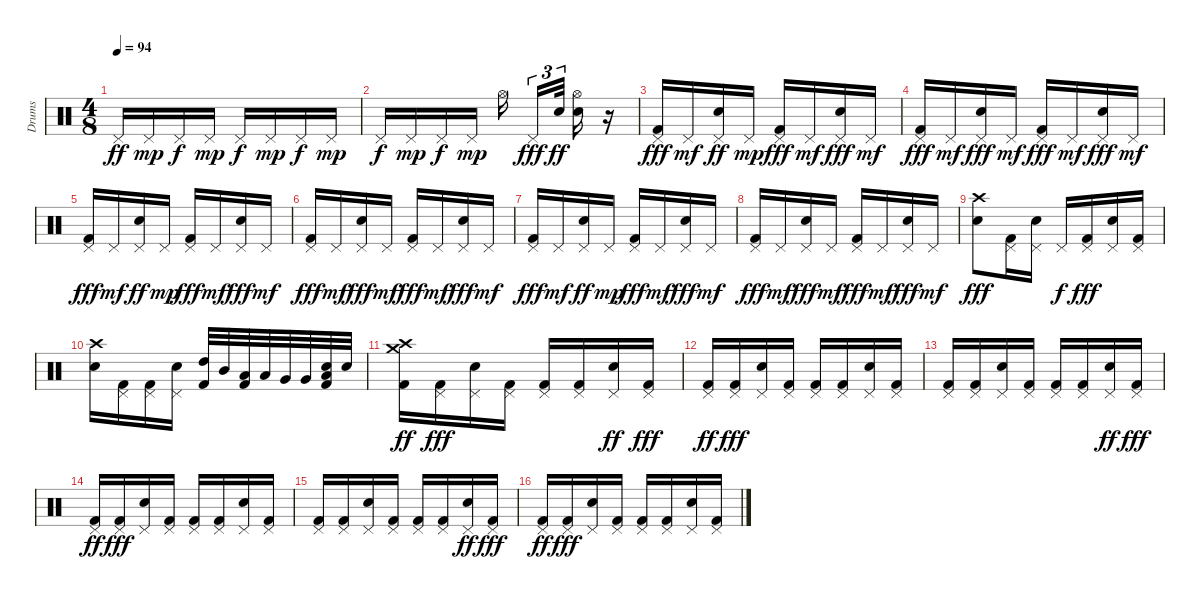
\track ("Drums" "Drums") {instrument percussion}
\staff {score}
\articulation defaults
\ts (4 8)
\tempo 94
\clef neutral
\ks c "Pedal Hi-Hat (hit)".16{dy ff} "Pedal Hi-Hat (hit)".16{dy mp} "Pedal Hi-Hat (hit)".16{dy f} "Pedal Hi-Hat (hit)".16{dy mp} "Pedal Hi-Hat (hit)".16{dy f} "Pedal Hi-Hat (hit)".16{dy mp} "Pedal Hi-Hat (hit)".16{dy f} "Pedal Hi-Hat (hit)".16{dy mp}
|
"Pedal Hi-Hat (hit)".16{dy f} "Pedal Hi-Hat (hit)".16{dy mp} "Pedal Hi-Hat (hit)".16{dy f} "Pedal Hi-Hat (hit)".16{dy mp} "Hi-Hat (open)".16 "Pedal Hi-Hat (hit)".16{tu (3 2) dy fff} "Electric Snare (hit)".32{tu (3 2) dy ff} ("Hi-Hat (open)" "Electric Snare (hit)").16 r.16 |
("Pedal Hi-Hat (hit)" "Kick (hit) 2").16{dy fff} "Pedal Hi-Hat (hit)".16{dy mf} ("Electric Snare (hit)" "Pedal Hi-Hat (hit)").16{dy ff} "Pedal Hi-Hat (hit)".16{dy mp} ("Pedal Hi-Hat (hit)" "Kick (hit) 2").16{dy fff} "Pedal Hi-Hat (hit)".16{dy mf} ("Pedal Hi-Hat (hit)" "Electric Snare (hit)").16{dy fff} "Pedal Hi-Hat (hit)".16{dy mf} |
("Pedal Hi-Hat (hit)" "Kick (hit) 2").16{dy fff} "Pedal Hi-Hat (hit)".16{dy mf} ("Pedal Hi-Hat (hit)" "Electric Snare (hit)").16{dy fff} "Pedal Hi-Hat (hit)".16{dy mf} ("Pedal Hi-Hat (hit)" "Kick (hit) 2").16{dy fff} "Pedal Hi-Hat (hit)".16{dy mf} ("Pedal Hi-Hat (hit)" "Electric Snare (hit)").16{dy fff} "Pedal Hi-Hat (hit)".16{dy mf} |
("Pedal Hi-Hat (hit)" "Kick (hit) 2").16{dy fff} "Pedal Hi-Hat (hit)".16{dy mf} ("Electric Snare (hit)" "Pedal Hi-Hat (hit)").16{dy ff} "Pedal Hi-Hat (hit)".16{dy mp} ("Pedal Hi-Hat (hit)" "Kick (hit) 2").16{dy fff} "Pedal Hi-Hat (hit)".16{dy mf} ("Pedal Hi-Hat (hit)" "Electric Snare (hit)").16{dy fff} "Pedal Hi-Hat (hit)".16{dy mf} |
("Pedal Hi-Hat (hit)" "Kick (hit) 2").16{dy fff} "Pedal Hi-Hat (hit)".16{dy mf} ("Pedal Hi-Hat (hit)" "Electric Snare (hit)").16{dy fff} "Pedal Hi-Hat (hit)".16{dy mf} ("Pedal Hi-Hat (hit)" "Kick (hit) 2").16{dy fff} "Pedal Hi-Hat (hit)".16{dy mf} ("Pedal Hi-Hat (hit)" "Electric Snare (hit)").16{dy fff} "Pedal Hi-Hat (hit)".16{dy mf} |
("Pedal Hi-Hat (hit)" "Kick (hit) 2").16{dy fff} "Pedal Hi-Hat (hit)".16{dy mf} ("Electric Snare (hit)" "Pedal Hi-Hat (hit)").16{dy ff} "Pedal Hi-Hat (hit)".16{dy mp} ("Pedal Hi-Hat (hit)" "Kick (hit) 2").16{dy fff} "Pedal Hi-Hat (hit)".16{dy mf} ("Pedal Hi-Hat (hit)" "Electric Snare (hit)").16{dy fff} "Pedal Hi-Hat (hit)".16{dy mf} |
("Pedal Hi-Hat (hit)" "Kick (hit) 2").16{dy fff} "Pedal Hi-Hat (hit)".16{dy mf} ("Pedal Hi-Hat (hit)" "Electric Snare (hit)").16{dy fff} "Pedal Hi-Hat (hit)".16{dy mf} ("Pedal Hi-Hat (hit)" "Kick (hit) 2").16{dy fff} "Pedal Hi-Hat (hit)".16{dy mf} ("Pedal Hi-Hat (hit)" "Electric Snare (hit)").16{dy fff} "Pedal Hi-Hat (hit)".16{dy mf} |
("Crash high (hit)" "Electric Snare (hit)").8{dy fff} ("Pedal Hi-Hat (hit)" "Kick (hit) 2").16 ("Pedal Hi-Hat (hit)" "Electric Snare (hit)").16 "Pedal Hi-Hat (hit)".16{dy f} ("Pedal Hi-Hat (hit)" "Kick (hit) 2").16{dy fff} ("Pedal Hi-Hat (hit)" "Electric Snare (hit)").16 ("Pedal Hi-Hat (hit)" "Kick (hit) 2").16 |
("Electric Snare (hit)" "Crash high (hit)").16 ("Pedal Hi-Hat (hit)" "Kick (hit) 2").16 ("Pedal Hi-Hat (hit)" "Kick (hit) 2").16 ("Pedal Hi-Hat (hit)" "Electric Snare (hit)").16 ("Kick (hit) 2" "High Tom (hit)").32 "Mid Tom (hit)".32 ("Kick (hit) 2" "Low Tom (hit)").32 "Low Tom (hit)".32 "Very Low Tom (hit)".32 "Very Low Tom (hit)".32 ("Kick (hit) 2" "Electric Snare (hit)" "Low Floor Tom (hit)").32 "Electric Snare (hit)".32 |
("Crash medium (hit)" "Kick (hit) 2" "Crash high (hit)").16{dy ff} ("Pedal Hi-Hat (hit)" "Kick (hit) 2").16{dy fff} ("Pedal Hi-Hat (hit)" "Electric Snare (hit)").16 ("Pedal Hi-Hat (hit)" "Kick (hit) 2").16 ("Pedal Hi-Hat (hit)" "Kick (hit) 2").16 ("Pedal Hi-Hat (hit)" "Kick (hit) 2").16 ("Electric Snare (hit)" "Pedal Hi-Hat (hit)").16{dy ff} ("Pedal Hi-Hat (hit)" "Kick (hit) 2").16{dy fff} |
("Kick (hit) 2" "Pedal Hi-Hat (hit)").16{dy ff} ("Pedal Hi-Hat (hit)" "Kick (hit) 2").16{dy fff} ("Pedal Hi-Hat (hit)" "Electric Snare (hit)").16 ("Pedal Hi-Hat (hit)" "Kick (hit) 2").16 ("Pedal Hi-Hat (hit)" "Kick (hit) 2").16 ("Pedal Hi-Hat (hit)" "Kick (hit) 2").16 ("Pedal Hi-Hat (hit)" "Electric Snare (hit)").16 ("Pedal Hi-Hat (hit)" "Kick (hit) 2").16 |
("Pedal Hi-Hat (hit)" "Kick (hit) 2").16 ("Pedal Hi-Hat (hit)" "Kick (hit) 2").16 ("Pedal Hi-Hat (hit)" "Electric Snare (hit)").16 ("Pedal Hi-Hat (hit)" "Kick (hit) 2").16 ("Pedal Hi-Hat (hit)" "Kick (hit) 2").16 ("Pedal Hi-Hat (hit)" "Kick (hit) 2").16 ("Electric Snare (hit)" "Pedal Hi-Hat (hit)").16{dy ff} ("Pedal Hi-Hat (hit)" "Kick (hit) 2").16{dy fff} |
("Kick (hit) 2" "Pedal Hi-Hat (hit)").16{dy ff} ("Pedal Hi-Hat (hit)" "Kick (hit) 2").16{dy fff} ("Pedal Hi-Hat (hit)" "Electric Snare (hit)").16 ("Pedal Hi-Hat (hit)" "Kick (hit) 2").16 ("Pedal Hi-Hat (hit)" "Kick (hit) 2").16 ("Pedal Hi-Hat (hit)" "Kick (hit) 2").16 ("Pedal Hi-Hat (hit)" "Electric Snare (hit)").16 ("Pedal Hi-Hat (hit)" "Kick (hit) 2").16 |
("Pedal Hi-Hat (hit)" "Kick (hit) 2").16 ("Pedal Hi-Hat (hit)" "Kick (hit) 2").16 ("Pedal Hi-Hat (hit)" "Electric Snare (hit)").16 ("Pedal Hi-Hat (hit)" "Kick (hit) 2").16 ("Pedal Hi-Hat (hit)" "Kick (hit) 2").16 ("Pedal Hi-Hat (hit)" "Kick (hit) 2").16 ("Electric Snare (hit)" "Pedal Hi-Hat (hit)").16{dy ff} ("Pedal Hi-Hat (hit)" "Kick (hit) 2").16{dy fff} |
("Kick (hit) 2" "Pedal Hi-Hat (hit)").16{dy ff} ("Pedal Hi-Hat (hit)" "Kick (hit) 2").16{dy fff} ("Pedal Hi-Hat (hit)" "Electric Snare (hit)").16 ("Pedal Hi-Hat (hit)" "Kick (hit) 2").16 ("Pedal Hi-Hat (hit)" "Kick (hit) 2").16 ("Pedal Hi-Hat (hit)" "Kick (hit) 2").16 ("Pedal Hi-Hat (hit)" "Electric Snare (hit)").16 ("Pedal Hi-Hat (hit)" "Kick (hit) 2").16
